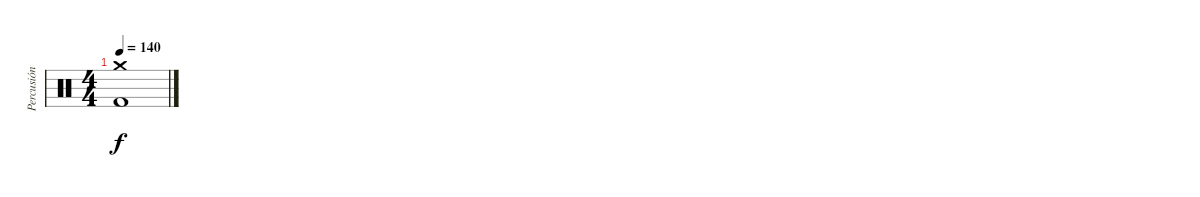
\track ("Percusión" "Percusión") {instrument percussion}
\staff {score}
\articulation defaults
\ts (4 4)
\tempo 140
\clef neutral
\ks c
("Crash medium (hit)" "Kick (hit) 2").1{dy f}
